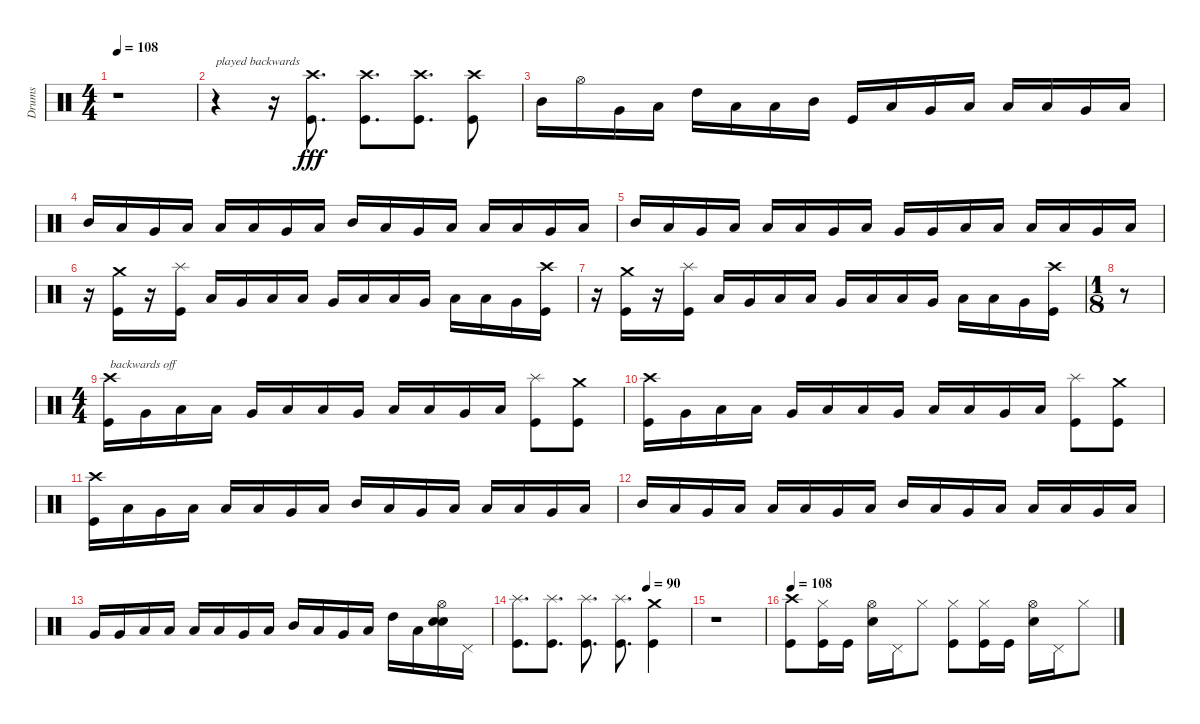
\track ("Drums" "Drums") {instrument percussion}
\staff {score}
\articulation defaults
\ts (4 4)
\tempo 108
\clef neutral
\ks c
r.1{dy fff} |
r.4{txt "played backwards"} r.16 ("Crash high (hit)" "Kick (hit)").8{d} ("Crash high (hit)" "Kick (hit)").8{d} ("Crash high (hit)" "Kick (hit)").8{d} ("Crash high (hit)" "Kick (hit)").8 |
"Mid Tom (hit)".16 "Hi-Hat (open)".16 "Very Low Tom (hit)".16 "Low Floor Tom (hit)".16 "High Tom (hit)".16 "Low Tom (hit)".16 "Low Tom (hit)".16 "Mid Tom (hit)".16 "Kick (hit)".16 "Low Floor Tom (hit)".16 "Very Low Tom (hit)".16 "Low Floor Tom (hit)".16 "Low Tom (hit)".16 "Low Floor Tom (hit)".16 "Very Low Tom (hit)".16 "Low Floor Tom (hit)".16 |
"Mid Tom (hit)".16 "Low Floor Tom (hit)".16 "Very Low Tom (hit)".16 "Low Floor Tom (hit)".16 "Low Tom (hit)".16 "Low Floor Tom (hit)".16 "Very Low Tom (hit)".16 "Low Floor Tom (hit)".16 "Mid Tom (hit)".16 "Low Floor Tom (hit)".16 "Very Low Tom (hit)".16 "Low Floor Tom (hit)".16 "Low Tom (hit)".16 "Low Floor Tom (hit)".16 "Very Low Tom (hit)".16 "Low Floor Tom (hit)".16 |
"Mid Tom (hit)".16 "Low Floor Tom (hit)".16 "Very Low Tom (hit)".16 "Low Floor Tom (hit)".16 "Low Tom (hit)".16 "Low Floor Tom (hit)".16 "Very Low Tom (hit)".16 "Low Floor Tom (hit)".16 "Very Low Tom (hit)".16 "Very Low Tom (hit)".16 "Low Floor Tom (hit)".16 "Low Floor Tom (hit)".16 "Low Tom (hit)".16 "Low Tom (hit)".16 "Very Low Tom (hit)".16 "Low Floor Tom (hit)".16 |
r.16 ("Crash medium (hit)" "Kick (hit)").16 r.16 ("Splash (hit)" "Kick (hit)").16 "Low Floor Tom (hit)".16 "Very Low Tom (hit)".16 "Low Tom (hit)".16 "Low Floor Tom (hit)".16 "Very Low Tom (hit)".16 "Low Tom (hit)".16 "Low Floor Tom (hit)".16 "Very Low Tom (hit)".16 "Low Tom (hit)".16 "Low Floor Tom (hit)".16 "Very Low Tom (hit)".16 ("Crash high (hit)" "Kick (hit)").16 |
r.16 ("Crash medium (hit)" "Kick (hit)").16 r.16 ("Splash (hit)" "Kick (hit)").16 "Low Floor Tom (hit)".16 "Very Low Tom (hit)".16 "Low Tom (hit)".16 "Low Floor Tom (hit)".16 "Very Low Tom (hit)".16 "Low Tom (hit)".16 "Low Floor Tom (hit)".16 "Very Low Tom (hit)".16 "Low Tom (hit)".16 "Low Floor Tom (hit)".16 "Very Low Tom (hit)".16 ("Crash high (hit)" "Kick (hit)").16 |
\ts (1 8)
r.8 |
\ts (4 4)
("Crash high (hit)" "Kick (hit)").16{txt "backwards off"} "Very Low Tom (hit)".16 "Low Floor Tom (hit)".16 "Low Tom (hit)".16 "Very Low Tom (hit)".16 "Low Floor Tom (hit)".16 "Low Tom (hit)".16 "Very Low Tom (hit)".16 "Low Floor Tom (hit)".16 "Low Tom (hit)".16 "Very Low Tom (hit)".16 "Low Floor Tom (hit)".16 ("Splash (hit)" "Kick (hit)").8 ("Crash medium (hit)" "Kick (hit)").8 |
("Crash high (hit)" "Kick (hit)").16 "Very Low Tom (hit)".16 "Low Floor Tom (hit)".16 "Low Tom (hit)".16 "Very Low Tom (hit)".16 "Low Floor Tom (hit)".16 "Low Tom (hit)".16 "Very Low Tom (hit)".16 "Low Floor Tom (hit)".16 "Low Tom (hit)".16 "Very Low Tom (hit)".16 "Low Floor Tom (hit)".16 ("Splash (hit)" "Kick (hit)").8 ("Crash medium (hit)" "Kick (hit)").8 |
("Crash high (hit)" "Kick (hit)").16 "Low Floor Tom (hit)".16 "Very Low Tom (hit)".16 "Low Floor Tom (hit)".16 "Low Tom (hit)".16 "Low Floor Tom (hit)".16 "Very Low Tom (hit)".16 "Low Floor Tom (hit)".16 "Mid Tom (hit)".16 "Low Floor Tom (hit)".16 "Very Low Tom (hit)".16 "Low Floor Tom (hit)".16 "Low Tom (hit)".16 "Low Floor Tom (hit)".16 "Very Low Tom (hit)".16 "Low Floor Tom (hit)".16 |
"Mid Tom (hit)".16 "Low Floor Tom (hit)".16 "Very Low Tom (hit)".16 "Low Floor Tom (hit)".16 "Low Tom (hit)".16 "Low Floor Tom (hit)".16 "Very Low Tom (hit)".16 "Low Floor Tom (hit)".16 "Mid Tom (hit)".16 "Low Floor Tom (hit)".16 "Very Low Tom (hit)".16 "Low Floor Tom (hit)".16 "Low Tom (hit)".16 "Low Floor Tom (hit)".16 "Very Low Tom (hit)".16 "Low Floor Tom (hit)".16 |
"Very Low Tom (hit)".16 "Very Low Tom (hit)".16 "Low Floor Tom (hit)".16 "Low Floor Tom (hit)".16 "Low Tom (hit)".16 "Low Tom (hit)".16 "Very Low Tom (hit)".16 "Low Floor Tom (hit)".16 "Mid Tom (hit)".16 "Low Tom (hit)".16 "Very Low Tom (hit)".16 "Low Floor Tom (hit)".16 "High Tom (hit)".16 "Low Tom (hit)".16 ("Hi-Hat (open)" "Electric Snare (hit)" "Snare (hit) 2").16 "Pedal Hi-Hat (hit)".16 |
\tempo (90 0.75)
("Splash (hit)" "Kick (hit)").8{d} ("Splash (hit)" "Kick (hit)").8{d} ("Splash (hit)" "Kick (hit)").8{d} ("Splash (hit)" "Kick (hit)").8{d} ("Crash medium (hit)" "Kick (hit)").4 |
r.1 |
\tempo 108
("Crash high (hit)" "Kick (hit)").8 ("Hi-Hat (closed)" "Kick (hit)").16 "Kick (hit)".16 ("Hi-Hat (open)" "Snare (hit) 2").16 "Pedal Hi-Hat (hit)".16 "Hi-Hat (closed)".8 ("Hi-Hat (closed)" "Kick (hit)").8 ("Hi-Hat (closed)" "Kick (hit)").16 "Kick (hit)".16 ("Hi-Hat (open)" "Snare (hit) 2").16 "Pedal Hi-Hat (hit)".16 "Hi-Hat (closed)".8
